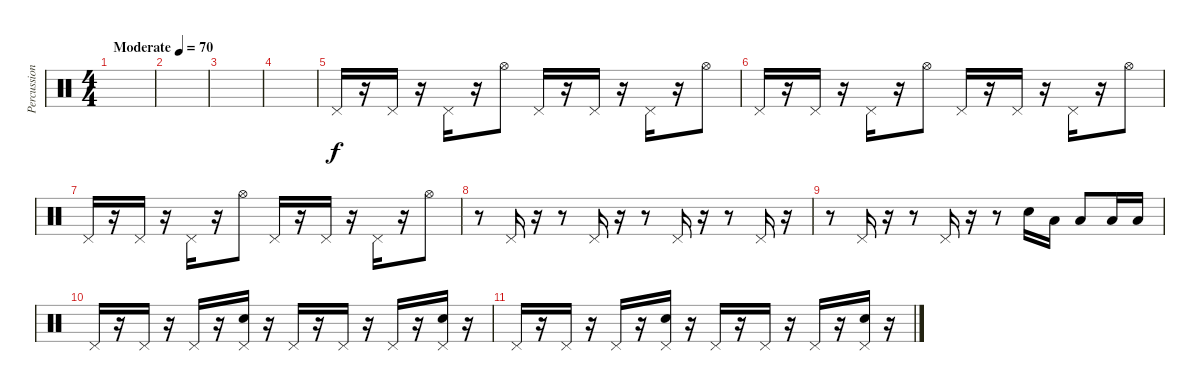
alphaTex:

\track ("Percussion" "Percussion") {instrument percussion}
\staff {score}
\articulation defaults
\ts (4 4)
\tempo (70 "Moderate")
\clef neutral
\ks c
|
|
|
|
"Pedal Hi-Hat (hit)".16 r.16 "Pedal Hi-Hat (hit)".16 r.16 "Pedal Hi-Hat (hit)".16 r.16 "Hi-Hat (open)".8 "Pedal Hi-Hat (hit)".16 r.16 "Pedal Hi-Hat (hit)".16 r.16 "Pedal Hi-Hat (hit)".16 r.16 "Hi-Hat (open)".8 |
"Pedal Hi-Hat (hit)".16 r.16 "Pedal Hi-Hat (hit)".16 r.16 "Pedal Hi-Hat (hit)".16 r.16 "Hi-Hat (open)".8 "Pedal Hi-Hat (hit)".16 r.16 "Pedal Hi-Hat (hit)".16 r.16 "Pedal Hi-Hat (hit)".16 r.16 "Hi-Hat (open)".8 |
"Pedal Hi-Hat (hit)".16 r.16 "Pedal Hi-Hat (hit)".16 r.16 "Pedal Hi-Hat (hit)".16 r.16 "Hi-Hat (open)".8 "Pedal Hi-Hat (hit)".16 r.16 "Pedal Hi-Hat (hit)".16 r.16 "Pedal Hi-Hat (hit)".16 r.16 "Hi-Hat (open)".8 |
r.8 "Pedal Hi-Hat (hit)".16 r.16 r.8 "Pedal Hi-Hat (hit)".16 r.16 r.8 "Pedal Hi-Hat (hit)".16 r.16 r.8 "Pedal Hi-Hat (hit)".16 r.16 |
r.8 "Pedal Hi-Hat (hit)".16 r.16 r.8 "Pedal Hi-Hat (hit)".16 r.16 r.8 "Snare (hit) 2".16 "Low Floor Tom (hit)".16 "Low Floor Tom (hit)".8 "Low Floor Tom (hit)".16 "Low Floor Tom (hit)".16 |
"Pedal Hi-Hat (hit)".16 r.16 "Pedal Hi-Hat (hit)".16 r.16 "Pedal Hi-Hat (hit)".16 r.16 ("Snare (hit) 2" "Pedal Hi-Hat (hit)").16 r.16 "Pedal Hi-Hat (hit)".16 r.16 "Pedal Hi-Hat (hit)".16 r.16 "Pedal Hi-Hat (hit)".16 r.16 ("Snare (hit) 2" "Pedal Hi-Hat (hit)").16 r.16 |
"Pedal Hi-Hat (hit)".16 r.16 "Pedal Hi-Hat (hit)".16 r.16 "Pedal Hi-Hat (hit)".16 r.16 ("Snare (hit) 2" "Pedal Hi-Hat (hit)").16 r.16 "Pedal Hi-Hat (hit)".16 r.16 "Pedal Hi-Hat (hit)".16 r.16 "Pedal Hi-Hat (hit)".16 r.16 ("Snare (hit) 2" "Pedal Hi-Hat (hit)").16 r.16
